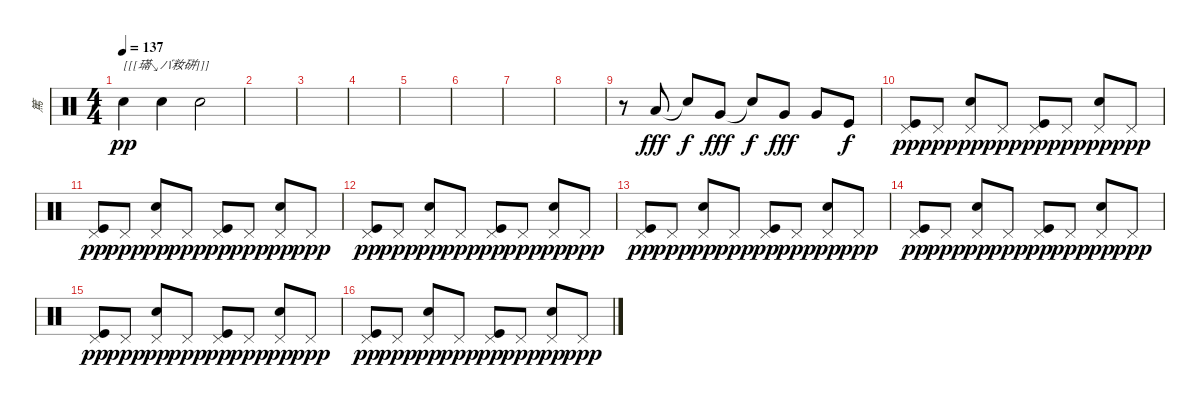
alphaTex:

\track ("篤" "篤") {instrument percussion}
\staff {score}
\articulation defaults
\ts (4 4)
\tempo 137
\clef neutral
\ks c "Hand Clap (hit)".4{txt "[[[璊↘バ籹硑]]]" dy pp} "Hand Clap (hit)".4 "Hand Clap (hit)".2
|
|
|
|
|
|
|
|
r.8 "Low Tom (hit)".8{dy fff} "Snare (hit)"{t}.8{dy f} "Very Low Tom (hit)".8{dy fff} "Snare (hit)"{t}.8{dy f} "Very Low Tom (hit)".8{dy fff} "Very Low Tom (hit)".8 "Kick (hit)".8{dy f} |
("Kick (hit)" "Pedal Hi-Hat (hit)").8{dy pp} "Pedal Hi-Hat (hit)".8{dy ppp} ("Snare (hit) 2" "Pedal Hi-Hat (hit)").8{dy pp} "Pedal Hi-Hat (hit)".8{dy ppp} ("Kick (hit)" "Pedal Hi-Hat (hit)").8{dy pp} "Pedal Hi-Hat (hit)".8{dy ppp} ("Snare (hit) 2" "Pedal Hi-Hat (hit)").8{dy pp} "Pedal Hi-Hat (hit)".8{dy ppp} |
("Kick (hit)" "Pedal Hi-Hat (hit)").8{dy pp} "Pedal Hi-Hat (hit)".8{dy ppp} ("Snare (hit) 2" "Pedal Hi-Hat (hit)").8{dy pp} "Pedal Hi-Hat (hit)".8{dy ppp} ("Kick (hit)" "Pedal Hi-Hat (hit)").8{dy pp} "Pedal Hi-Hat (hit)".8{dy ppp} ("Snare (hit) 2" "Pedal Hi-Hat (hit)").8{dy pp} "Pedal Hi-Hat (hit)".8{dy ppp} |
("Kick (hit)" "Pedal Hi-Hat (hit)").8{dy pp} "Pedal Hi-Hat (hit)".8{dy ppp} ("Snare (hit) 2" "Pedal Hi-Hat (hit)").8{dy pp} "Pedal Hi-Hat (hit)".8{dy ppp} ("Kick (hit)" "Pedal Hi-Hat (hit)").8{dy pp} "Pedal Hi-Hat (hit)".8{dy ppp} ("Snare (hit) 2" "Pedal Hi-Hat (hit)").8{dy pp} "Pedal Hi-Hat (hit)".8{dy ppp} |
("Kick (hit)" "Pedal Hi-Hat (hit)").8{dy pp} "Pedal Hi-Hat (hit)".8{dy ppp} ("Snare (hit) 2" "Pedal Hi-Hat (hit)").8{dy pp} "Pedal Hi-Hat (hit)".8{dy ppp} ("Kick (hit)" "Pedal Hi-Hat (hit)").8{dy pp} "Pedal Hi-Hat (hit)".8{dy ppp} ("Snare (hit) 2" "Pedal Hi-Hat (hit)").8{dy pp} "Pedal Hi-Hat (hit)".8{dy ppp} |
("Kick (hit)" "Pedal Hi-Hat (hit)").8{dy pp} "Pedal Hi-Hat (hit)".8{dy ppp} ("Snare (hit) 2" "Pedal Hi-Hat (hit)").8{dy pp} "Pedal Hi-Hat (hit)".8{dy ppp} ("Kick (hit)" "Pedal Hi-Hat (hit)").8{dy pp} "Pedal Hi-Hat (hit)".8{dy ppp} ("Snare (hit) 2" "Pedal Hi-Hat (hit)").8{dy pp} "Pedal Hi-Hat (hit)".8{dy ppp} |
("Kick (hit)" "Pedal Hi-Hat (hit)").8{dy pp} "Pedal Hi-Hat (hit)".8{dy ppp} ("Snare (hit) 2" "Pedal Hi-Hat (hit)").8{dy pp} "Pedal Hi-Hat (hit)".8{dy ppp} ("Kick (hit)" "Pedal Hi-Hat (hit)").8{dy pp} "Pedal Hi-Hat (hit)".8{dy ppp} ("Snare (hit) 2" "Pedal Hi-Hat (hit)").8{dy pp} "Pedal Hi-Hat (hit)".8{dy ppp} |
("Kick (hit)" "Pedal Hi-Hat (hit)").8{dy pp} "Pedal Hi-Hat (hit)".8{dy ppp} ("Snare (hit) 2" "Pedal Hi-Hat (hit)").8{dy pp} "Pedal Hi-Hat (hit)".8{dy ppp} ("Kick (hit)" "Pedal Hi-Hat (hit)").8{dy pp} "Pedal Hi-Hat (hit)".8{dy ppp} ("Snare (hit) 2" "Pedal Hi-Hat (hit)").8{dy pp} "Pedal Hi-Hat (hit)".8{dy ppp}
